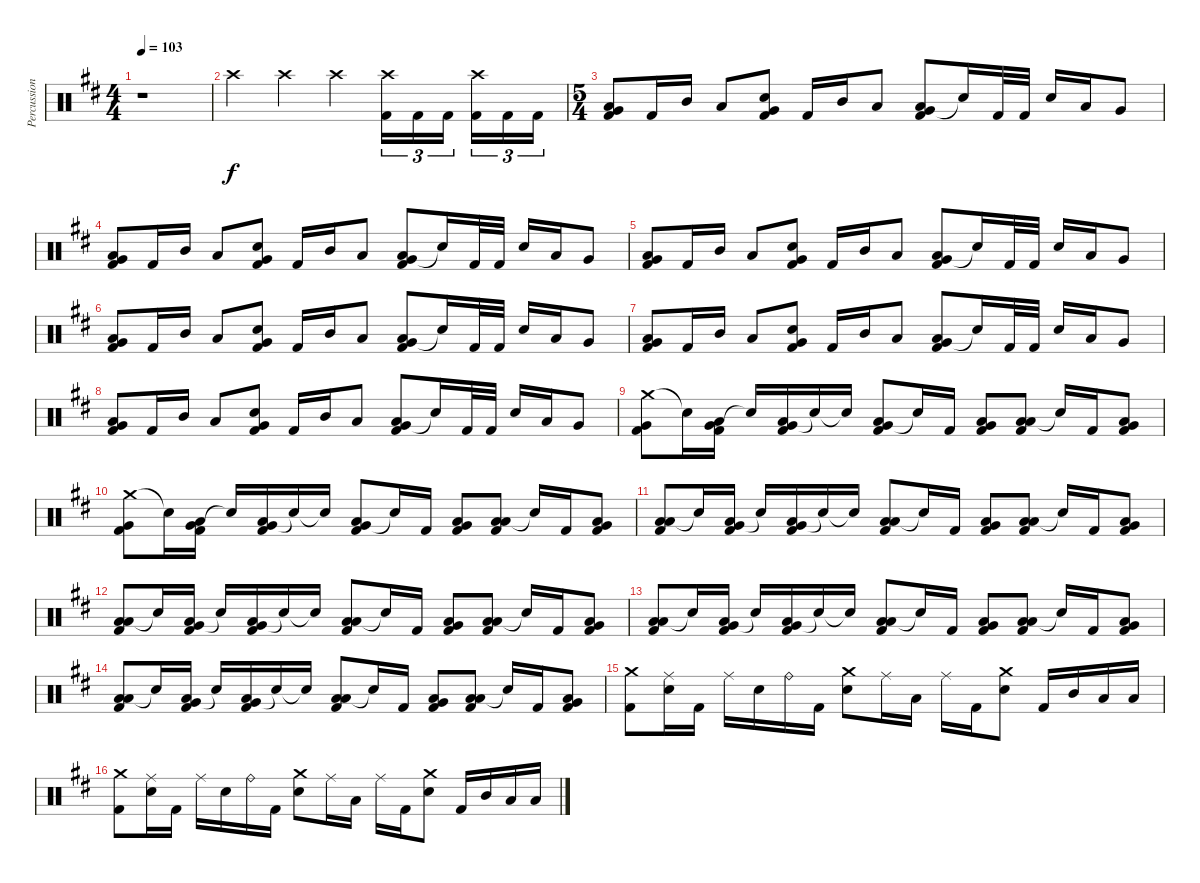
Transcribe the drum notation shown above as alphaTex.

\track ("Percussion" "Percussion") {instrument percussion}
\staff {score}
\articulation defaults
\ts (4 4)
\tempo 103
\clef neutral
\ks d
r.1{dy f} |
"Crash high (hit)".4 "Crash high (hit)".4 "Crash high (hit)".4 ("Crash high (hit)" "Kick (hit) 2").16{tu (3 2)} "Kick (hit) 2".16{tu (3 2)} "Kick (hit) 2".16{tu (3 2) beam splitsecondary} ("Crash high (hit)" "Kick (hit) 2").16{tu (3 2)} "Kick (hit) 2".16{tu (3 2)} "Kick (hit) 2".16{tu (3 2)} |
\ts (5 4)
("Low Tom (hit)" "Very Low Tom (hit)" "Kick (hit) 2").8 "Kick (hit) 2".16 "Mid Tom (hit)".16 "Low Tom (hit)".8 ("Snare (hit) 2" "Very Low Tom (hit)" "Kick (hit) 2").8 "Kick (hit) 2".16 "Mid Tom (hit)".16 "Low Tom (hit)".8 ("Very Low Tom (hit)" "Low Floor Tom (hit)" "Kick (hit) 2").8 "Snare (hit)"{t}.16 "Kick (hit) 2".32 "Kick (hit) 2".32 "Snare (hit) 2".16 "Low Tom (hit)".16 "Very Low Tom (hit)".8 |
("Low Tom (hit)" "Very Low Tom (hit)" "Kick (hit) 2").8 "Kick (hit) 2".16 "Mid Tom (hit)".16 "Low Tom (hit)".8 ("Snare (hit) 2" "Very Low Tom (hit)" "Kick (hit) 2").8 "Kick (hit) 2".16 "Mid Tom (hit)".16 "Low Tom (hit)".8 ("Very Low Tom (hit)" "Low Floor Tom (hit)" "Kick (hit) 2").8 "Snare (hit)"{t}.16 "Kick (hit) 2".32 "Kick (hit) 2".32 "Snare (hit) 2".16 "Low Tom (hit)".16 "Very Low Tom (hit)".8 |
("Low Tom (hit)" "Very Low Tom (hit)" "Kick (hit) 2").8 "Kick (hit) 2".16 "Mid Tom (hit)".16 "Low Tom (hit)".8 ("Snare (hit) 2" "Very Low Tom (hit)" "Kick (hit) 2").8 "Kick (hit) 2".16 "Mid Tom (hit)".16 "Low Tom (hit)".8 ("Very Low Tom (hit)" "Low Floor Tom (hit)" "Kick (hit) 2").8 "Snare (hit)"{t}.16 "Kick (hit) 2".32 "Kick (hit) 2".32 "Snare (hit) 2".16 "Low Tom (hit)".16 "Very Low Tom (hit)".8 |
("Low Tom (hit)" "Very Low Tom (hit)" "Kick (hit) 2").8 "Kick (hit) 2".16 "Mid Tom (hit)".16 "Low Tom (hit)".8 ("Snare (hit) 2" "Very Low Tom (hit)" "Kick (hit) 2").8 "Kick (hit) 2".16 "Mid Tom (hit)".16 "Low Tom (hit)".8 ("Very Low Tom (hit)" "Low Floor Tom (hit)" "Kick (hit) 2").8 "Snare (hit)"{t}.16 "Kick (hit) 2".32 "Kick (hit) 2".32 "Snare (hit) 2".16 "Low Tom (hit)".16 "Very Low Tom (hit)".8 |
("Low Tom (hit)" "Very Low Tom (hit)" "Kick (hit) 2").8 "Kick (hit) 2".16 "Mid Tom (hit)".16 "Low Tom (hit)".8 ("Snare (hit) 2" "Very Low Tom (hit)" "Kick (hit) 2").8 "Kick (hit) 2".16 "Mid Tom (hit)".16 "Low Tom (hit)".8 ("Very Low Tom (hit)" "Low Floor Tom (hit)" "Kick (hit) 2").8 "Snare (hit)"{t}.16 "Kick (hit) 2".32 "Kick (hit) 2".32 "Snare (hit) 2".16 "Low Tom (hit)".16 "Very Low Tom (hit)".8 |
("Low Tom (hit)" "Very Low Tom (hit)" "Kick (hit) 2").8 "Kick (hit) 2".16 "Mid Tom (hit)".16 "Low Tom (hit)".8 ("Snare (hit) 2" "Very Low Tom (hit)" "Kick (hit) 2").8 "Kick (hit) 2".16 "Mid Tom (hit)".16 "Low Tom (hit)".8 ("Very Low Tom (hit)" "Low Floor Tom (hit)" "Kick (hit) 2").8 "Snare (hit)"{t}.16 "Kick (hit) 2".32 "Kick (hit) 2".32 "Snare (hit) 2".16 "Low Tom (hit)".16 "Very Low Tom (hit)".8 |
("Crash medium (hit)" "Very Low Tom (hit)" "Kick (hit) 2").8 "Snare (hit)"{t}.16 ("Very Low Tom (hit)" "Low Floor Tom (hit)" "Kick (hit) 2").16 "Snare (hit)"{t}.16 ("Very Low Tom (hit)" "Low Floor Tom (hit)" "Kick (hit) 2").16 "Snare (hit)"{t}.16 "Snare (hit)"{t}.16 ("Very Low Tom (hit)" "Low Floor Tom (hit)" "Kick (hit) 2").8 "Snare (hit)"{t}.16 "Kick (hit) 2".16 ("Very Low Tom (hit)" "Low Floor Tom (hit)" "Kick (hit) 2").8 ("Low Tom (hit)" "Low Floor Tom (hit)" "Kick (hit) 2").8 "Snare (hit)"{t}.16 "Kick (hit) 2".16 ("Very Low Tom (hit)" "Low Floor Tom (hit)" "Kick (hit) 2").8 |
("Crash medium (hit)" "Very Low Tom (hit)" "Kick (hit) 2").8 "Snare (hit)"{t}.16 ("Very Low Tom (hit)" "Low Floor Tom (hit)" "Kick (hit) 2").16 "Snare (hit)"{t}.16 ("Very Low Tom (hit)" "Low Floor Tom (hit)" "Kick (hit) 2").16 "Snare (hit)"{t}.16 "Snare (hit)"{t}.16 ("Very Low Tom (hit)" "Low Floor Tom (hit)" "Kick (hit) 2").8 "Snare (hit)"{t}.16 "Kick (hit) 2".16 ("Very Low Tom (hit)" "Low Floor Tom (hit)" "Kick (hit) 2").8 ("Low Tom (hit)" "Low Floor Tom (hit)" "Kick (hit) 2").8 "Snare (hit)"{t}.16 "Kick (hit) 2".16 ("Very Low Tom (hit)" "Low Floor Tom (hit)" "Kick (hit) 2").8 |
("Low Tom (hit)" "Low Floor Tom (hit)" "Kick (hit) 2").8 "Snare (hit)"{t}.16 ("Very Low Tom (hit)" "Low Floor Tom (hit)" "Kick (hit) 2").16 "Snare (hit)"{t}.16 ("Very Low Tom (hit)" "Low Floor Tom (hit)" "Kick (hit) 2").16 "Snare (hit)"{t}.16 "Snare (hit)"{t}.16 ("Low Tom (hit)" "Low Floor Tom (hit)" "Kick (hit) 2").8 "Snare (hit)"{t}.16 "Kick (hit) 2".16 ("Very Low Tom (hit)" "Low Floor Tom (hit)" "Kick (hit) 2").8 ("Low Tom (hit)" "Low Floor Tom (hit)" "Kick (hit) 2").8 "Snare (hit)"{t}.16 "Kick (hit) 2".16 ("Very Low Tom (hit)" "Low Floor Tom (hit)" "Kick (hit) 2").8 |
("Low Tom (hit)" "Low Floor Tom (hit)" "Kick (hit) 2").8 "Snare (hit)"{t}.16 ("Very Low Tom (hit)" "Low Floor Tom (hit)" "Kick (hit) 2").16 "Snare (hit)"{t}.16 ("Very Low Tom (hit)" "Low Floor Tom (hit)" "Kick (hit) 2").16 "Snare (hit)"{t}.16 "Snare (hit)"{t}.16 ("Low Tom (hit)" "Low Floor Tom (hit)" "Kick (hit) 2").8 "Snare (hit)"{t}.16 "Kick (hit) 2".16 ("Very Low Tom (hit)" "Low Floor Tom (hit)" "Kick (hit) 2").8 ("Low Tom (hit)" "Low Floor Tom (hit)" "Kick (hit) 2").8 "Snare (hit)"{t}.16 "Kick (hit) 2".16 ("Very Low Tom (hit)" "Low Floor Tom (hit)" "Kick (hit) 2").8 |
("Low Tom (hit)" "Low Floor Tom (hit)" "Kick (hit) 2").8 "Snare (hit)"{t}.16 ("Very Low Tom (hit)" "Low Floor Tom (hit)" "Kick (hit) 2").16 "Snare (hit)"{t}.16 ("Very Low Tom (hit)" "Low Floor Tom (hit)" "Kick (hit) 2").16 "Snare (hit)"{t}.16 "Snare (hit)"{t}.16 ("Low Tom (hit)" "Low Floor Tom (hit)" "Kick (hit) 2").8 "Snare (hit)"{t}.16 "Kick (hit) 2".16 ("Very Low Tom (hit)" "Low Floor Tom (hit)" "Kick (hit) 2").8 ("Low Tom (hit)" "Low Floor Tom (hit)" "Kick (hit) 2").8 "Snare (hit)"{t}.16 "Kick (hit) 2".16 ("Very Low Tom (hit)" "Low Floor Tom (hit)" "Kick (hit) 2").8 |
("Low Tom (hit)" "Low Floor Tom (hit)" "Kick (hit) 2").8 "Snare (hit)"{t}.16 ("Very Low Tom (hit)" "Low Floor Tom (hit)" "Kick (hit) 2").16 "Snare (hit)"{t}.16 ("Very Low Tom (hit)" "Low Floor Tom (hit)" "Kick (hit) 2").16 "Snare (hit)"{t}.16 "Snare (hit)"{t}.16 ("Low Tom (hit)" "Low Floor Tom (hit)" "Kick (hit) 2").8 "Snare (hit)"{t}.16 "Kick (hit) 2".16 ("Very Low Tom (hit)" "Low Floor Tom (hit)" "Kick (hit) 2").8 ("Low Tom (hit)" "Low Floor Tom (hit)" "Kick (hit) 2").8 "Snare (hit)"{t}.16 "Kick (hit) 2".16 ("Very Low Tom (hit)" "Low Floor Tom (hit)" "Kick (hit) 2").8 |
("Crash medium (hit)" "Kick (hit) 2").8 ("Ride (middle)" "Snare (hit) 2").16 "Kick (hit) 2".16 "Ride (middle)".16 "Snare (hit) 2".16 "Ride (bell)".16 "Kick (hit) 2".16 ("Crash medium (hit)" "Snare (hit) 2").8 "Ride (middle)".16 "Low Tom (hit)".16 "Ride (middle)".16 "Kick (hit) 2".16 ("Crash medium (hit)" "Snare (hit) 2").8 "Kick (hit) 2".16 "Mid Tom (hit)".16 "Low Tom (hit)".16 "Low Tom (hit)".16 |
("Crash medium (hit)" "Kick (hit) 2").8 ("Ride (middle)" "Snare (hit) 2").16 "Kick (hit) 2".16 "Ride (middle)".16 "Snare (hit) 2".16 "Ride (bell)".16 "Kick (hit) 2".16 ("Crash medium (hit)" "Snare (hit) 2").8 "Ride (middle)".16 "Low Tom (hit)".16 "Ride (middle)".16 "Kick (hit) 2".16 ("Crash medium (hit)" "Snare (hit) 2").8 "Kick (hit) 2".16 "Mid Tom (hit)".16 "Low Tom (hit)".16 "Low Tom (hit)".16
